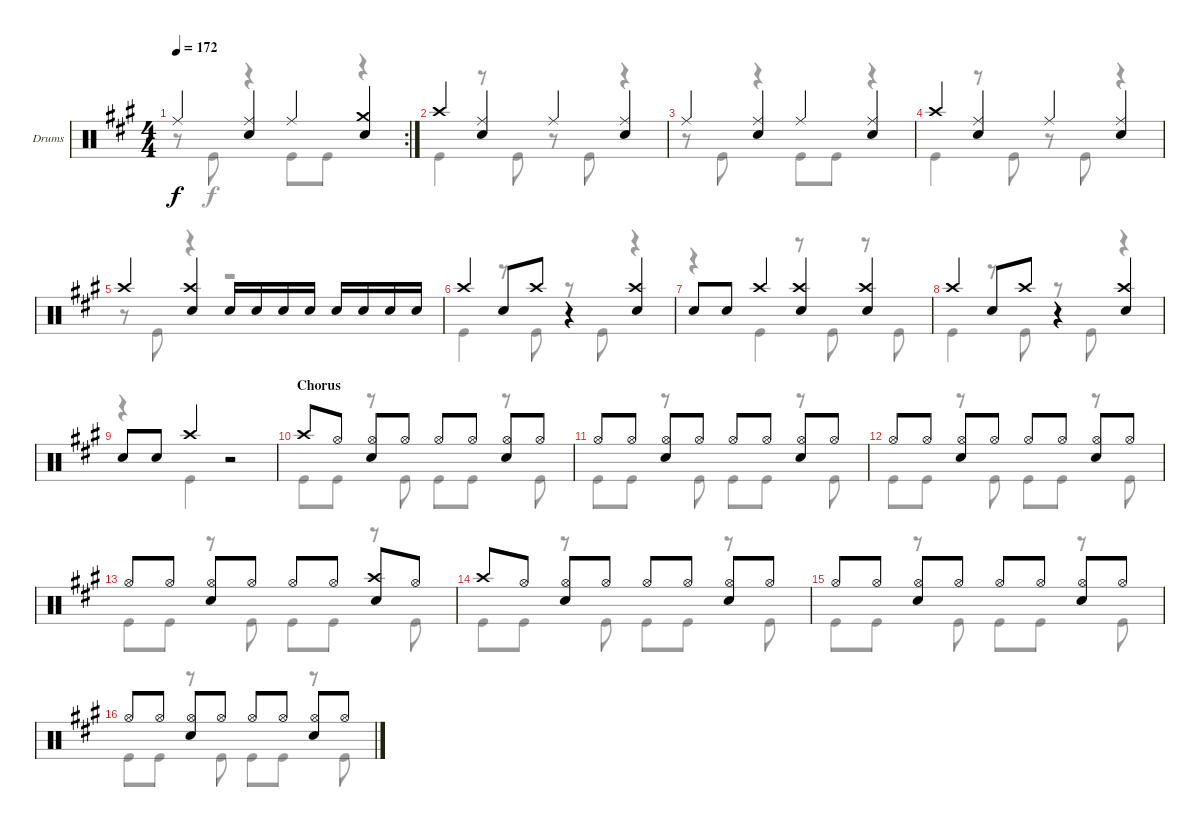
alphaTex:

\defaultSystemsLayout 4
\bracketExtendMode groupsimilarinstruments
\firstSystemTrackNameOrientation horizontal
\otherSystemsTrackNameOrientation horizontal
\track ("Taylor Hawkins" "Drums") {instrument percussion}
\staff {score}
\articulation defaults
\voice
\rc 2
\ts (4 4)
\tempo 172
\clef neutral
\scale
0.333333
\ks a "Ride (middle)".4{dy f}
("Snare (hit) 2" "Ride (middle)").4 "Ride (middle)".4 ("Snare (hit) 2" "Crash medium (hit)").4 |
\scale
0.333333 "Crash high (hit)".4 ("Snare (hit) 2" "Ride (middle)").4 "Ride (middle)".4 ("Snare (hit) 2" "Ride (middle)").4 |
\scale
0.333333 "Ride (middle)".4 ("Snare (hit) 2" "Ride (middle)").4 "Ride (middle)".4 ("Snare (hit) 2" "Ride (middle)").4 |
\scale
0.333333 "Crash high (hit)".4 ("Snare (hit) 2" "Ride (middle)").4 "Ride (middle)".4 ("Snare (hit) 2" "Ride (middle)").4 |
\scale
0.333333 "Crash high (hit)".4 ("Snare (hit) 2" "Crash high (hit)").4 "Snare (hit) 2".16 "Snare (hit) 2".16 "Snare (hit) 2".16 "Snare (hit) 2".16 "Snare (hit) 2".16 "Snare (hit) 2".16 "Snare (hit) 2".16 "Snare (hit) 2".16 |
\scale
0.333333 "Crash high (hit)".4 "Snare (hit) 2".8 "Crash high (hit)".8 r.4 ("Crash high (hit)" "Snare (hit) 2").4 |
\scale
0.333333 "Snare (hit) 2".8 "Snare (hit) 2".8 "Crash high (hit)".4 ("Crash high (hit)" "Snare (hit) 2").4 ("Crash high (hit)" "Snare (hit) 2").4 |
\scale
0.333333 "Crash high (hit)".4 "Snare (hit) 2".8 "Crash high (hit)".8 r.4 ("Crash high (hit)" "Snare (hit) 2").4 |
\scale
0.333333 "Snare (hit) 2".8 "Snare (hit) 2".8 "Crash high (hit)".4 r.2 |
\section ("" "Chorus")
"Crash high (hit)".8 "Hi-Hat (open)".8 ("Hi-Hat (open)" "Snare (hit) 2").8 "Hi-Hat (open)".8 "Hi-Hat (open)".8 "Hi-Hat (open)".8 ("Hi-Hat (open)" "Snare (hit) 2").8 "Hi-Hat (open)".8 |
"Hi-Hat (open)".8 "Hi-Hat (open)".8 ("Hi-Hat (open)" "Snare (hit) 2").8 "Hi-Hat (open)".8 "Hi-Hat (open)".8 "Hi-Hat (open)".8 ("Hi-Hat (open)" "Snare (hit) 2").8 "Hi-Hat (open)".8 |
"Hi-Hat (open)".8 "Hi-Hat (open)".8 ("Hi-Hat (open)" "Snare (hit) 2").8 "Hi-Hat (open)".8 "Hi-Hat (open)".8 "Hi-Hat (open)".8 ("Hi-Hat (open)" "Snare (hit) 2").8 "Hi-Hat (open)".8 |
"Hi-Hat (open)".8 "Hi-Hat (open)".8 ("Hi-Hat (open)" "Snare (hit) 2").8 "Hi-Hat (open)".8 "Hi-Hat (open)".8 "Hi-Hat (open)".8 ("Crash high (hit)" "Snare (hit) 2").8 "Hi-Hat (open)".8 |
"Crash high (hit)".8 "Hi-Hat (open)".8 ("Hi-Hat (open)" "Snare (hit) 2").8 "Hi-Hat (open)".8 "Hi-Hat (open)".8 "Hi-Hat (open)".8 ("Hi-Hat (open)" "Snare (hit) 2").8 "Hi-Hat (open)".8 |
"Hi-Hat (open)".8 "Hi-Hat (open)".8 ("Hi-Hat (open)" "Snare (hit) 2").8 "Hi-Hat (open)".8 "Hi-Hat (open)".8 "Hi-Hat (open)".8 ("Hi-Hat (open)" "Snare (hit) 2").8 "Hi-Hat (open)".8 |
"Hi-Hat (open)".8 "Hi-Hat (open)".8 ("Hi-Hat (open)" "Snare (hit) 2").8 "Hi-Hat (open)".8 "Hi-Hat (open)".8 "Hi-Hat (open)".8 ("Hi-Hat (open)" "Snare (hit) 2").8 "Hi-Hat (open)".8
\voice
\clef neutral
\ottava regular
\simile none
\scale
0.333333
\ks a
r.8{dy f} "Kick (hit)".8 r.4 "Kick (hit)".8 "Kick (hit)".8 r.4 |
\scale
0.333333 "Kick (hit)".4 r.8 "Kick (hit)".8 r.8 "Kick (hit)".8 r.4 |
\scale
0.333333 r.8 "Kick (hit)".8 r.4 "Kick (hit)".8 "Kick (hit)".8 r.4 |
\scale
0.333333 "Kick (hit)".4 r.8 "Kick (hit)".8 r.8 "Kick (hit)".8 r.4 |
\scale
0.333333 r.8 "Kick (hit)".8 r.4 r.2 |
\scale
0.333333 "Kick (hit)".4 r.8 "Kick (hit)".8 r.8 "Kick (hit)".8 r.4 |
\scale
0.333333 r.4 "Kick (hit)".4 r.8 "Kick (hit)".8 r.8 "Kick (hit)".8 |
\scale
0.333333 "Kick (hit)".4 r.8 "Kick (hit)".8 r.8 "Kick (hit)".8 r.4 |
\scale
0.333333 r.4 "Kick (hit)".4 r.2 |
"Kick (hit)".8 "Kick (hit)".8 r.8 "Kick (hit)".8 "Kick (hit)".8 "Kick (hit)".8 r.8 "Kick (hit)".8 |
"Kick (hit)".8 "Kick (hit)".8 r.8 "Kick (hit)".8 "Kick (hit)".8 "Kick (hit)".8 r.8 "Kick (hit)".8 |
"Kick (hit)".8 "Kick (hit)".8 r.8 "Kick (hit)".8 "Kick (hit)".8 "Kick (hit)".8 r.8 "Kick (hit)".8 |
"Kick (hit)".8 "Kick (hit)".8 r.8 "Kick (hit)".8 "Kick (hit)".8 "Kick (hit)".8 r.8 "Kick (hit)".8 |
"Kick (hit)".8 "Kick (hit)".8 r.8 "Kick (hit)".8 "Kick (hit)".8 "Kick (hit)".8 r.8 "Kick (hit)".8 |
"Kick (hit)".8 "Kick (hit)".8 r.8 "Kick (hit)".8 "Kick (hit)".8 "Kick (hit)".8 r.8 "Kick (hit)".8 |
"Kick (hit)".8 "Kick (hit)".8 r.8 "Kick (hit)".8 "Kick (hit)".8 "Kick (hit)".8 r.8 "Kick (hit)".8
